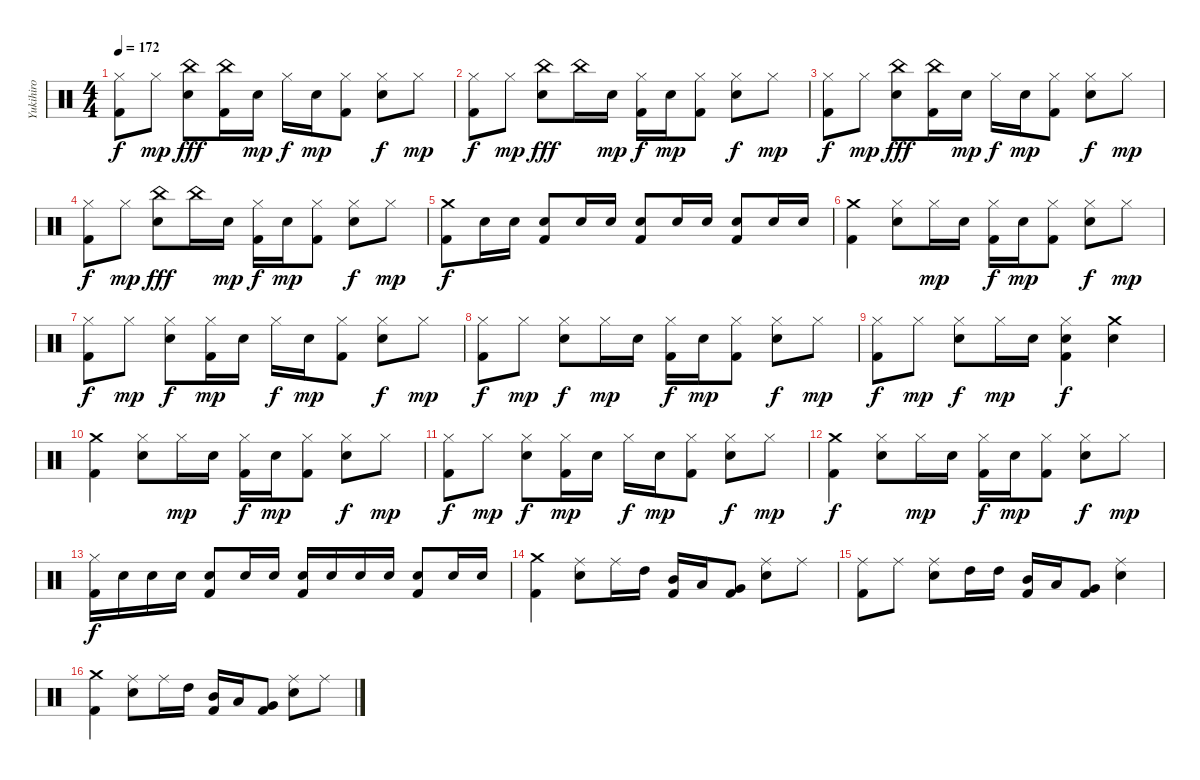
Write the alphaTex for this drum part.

\track ("Yukihiro" "Yukihiro") {instrument percussion}
\staff {score}
\articulation defaults
\ts (4 4)
\tempo 172
\clef neutral
\ks c
("Hi-Hat (closed)" "Kick (hit) 2").8{dy f} "Hi-Hat (closed)".8{dy mp} ("China (hit)" "Electric Snare (hit)").8{dy fff} ("China (hit)" "Kick (hit) 2").16 "Electric Snare (hit)".16{dy mp} "Hi-Hat (closed)".16{dy f} "Electric Snare (hit)".16{dy mp} ("Hi-Hat (closed)" "Kick (hit) 2").8 ("Hi-Hat (closed)" "Electric Snare (hit)").8{dy f} "Hi-Hat (closed)".8{dy mp} |
("Hi-Hat (closed)" "Kick (hit) 2").8{dy f} "Hi-Hat (closed)".8{dy mp} ("China (hit)" "Electric Snare (hit)").8{dy fff} "China (hit)".16 "Electric Snare (hit)".16{dy mp} ("Hi-Hat (closed)" "Kick (hit) 2").16{dy f} "Electric Snare (hit)".16{dy mp} ("Hi-Hat (closed)" "Kick (hit) 2").8 ("Hi-Hat (closed)" "Electric Snare (hit)").8{dy f} "Hi-Hat (closed)".8{dy mp} |
("Hi-Hat (closed)" "Kick (hit) 2").8{dy f} "Hi-Hat (closed)".8{dy mp} ("China (hit)" "Electric Snare (hit)").8{dy fff} ("China (hit)" "Kick (hit) 2").16 "Electric Snare (hit)".16{dy mp} "Hi-Hat (closed)".16{dy f} "Electric Snare (hit)".16{dy mp} ("Hi-Hat (closed)" "Kick (hit) 2").8 ("Hi-Hat (closed)" "Electric Snare (hit)").8{dy f} "Hi-Hat (closed)".8{dy mp} |
("Hi-Hat (closed)" "Kick (hit) 2").8{dy f} "Hi-Hat (closed)".8{dy mp} ("China (hit)" "Electric Snare (hit)").8{dy fff} "China (hit)".16 "Electric Snare (hit)".16{dy mp} ("Hi-Hat (closed)" "Kick (hit) 2").16{dy f} "Electric Snare (hit)".16{dy mp} ("Hi-Hat (closed)" "Kick (hit) 2").8 ("Hi-Hat (closed)" "Electric Snare (hit)").8{dy f} "Hi-Hat (closed)".8{dy mp} |
("Crash medium (hit)" "Kick (hit) 2").8{dy f} "Electric Snare (hit)".16 "Electric Snare (hit)".16 ("Electric Snare (hit)" "Kick (hit) 2").8 "Electric Snare (hit)".16 "Electric Snare (hit)".16 ("Electric Snare (hit)" "Kick (hit) 2").8 "Electric Snare (hit)".16 "Electric Snare (hit)".16 ("Electric Snare (hit)" "Kick (hit) 2").8 "Electric Snare (hit)".16 "Electric Snare (hit)".16 |
("Crash medium (hit)" "Kick (hit) 2").4 ("Hi-Hat (closed)" "Electric Snare (hit)").8 "Hi-Hat (closed)".16{dy mp} "Electric Snare (hit)".16 ("Hi-Hat (closed)" "Kick (hit) 2").16{dy f} "Electric Snare (hit)".16{dy mp} ("Hi-Hat (closed)" "Kick (hit) 2").8 ("Hi-Hat (closed)" "Electric Snare (hit)").8{dy f} "Hi-Hat (closed)".8{dy mp} |
("Hi-Hat (closed)" "Kick (hit) 2").8{dy f} "Hi-Hat (closed)".8{dy mp} ("Hi-Hat (closed)" "Electric Snare (hit)").8{dy f} ("Hi-Hat (closed)" "Kick (hit) 2").16{dy mp} "Electric Snare (hit)".16 "Hi-Hat (closed)".16{dy f} "Electric Snare (hit)".16{dy mp} ("Hi-Hat (closed)" "Kick (hit) 2").8 ("Hi-Hat (closed)" "Electric Snare (hit)").8{dy f} "Hi-Hat (closed)".8{dy mp} |
("Hi-Hat (closed)" "Kick (hit) 2").8{dy f} "Hi-Hat (closed)".8{dy mp} ("Hi-Hat (closed)" "Electric Snare (hit)").8{dy f} "Hi-Hat (closed)".16{dy mp} "Electric Snare (hit)".16 ("Hi-Hat (closed)" "Kick (hit) 2").16{dy f} "Electric Snare (hit)".16{dy mp} ("Hi-Hat (closed)" "Kick (hit) 2").8 ("Hi-Hat (closed)" "Electric Snare (hit)").8{dy f} "Hi-Hat (closed)".8{dy mp} |
("Hi-Hat (closed)" "Kick (hit) 2").8{dy f} "Hi-Hat (closed)".8{dy mp} ("Hi-Hat (closed)" "Electric Snare (hit)").8{dy f} "Hi-Hat (closed)".16{dy mp} "Electric Snare (hit)".16 ("Hi-Hat (closed)" "Electric Snare (hit)" "Kick (hit) 2").4{dy f} ("Crash medium (hit)" "Electric Snare (hit)").4 |
("Crash medium (hit)" "Kick (hit) 2").4 ("Hi-Hat (closed)" "Electric Snare (hit)").8 "Hi-Hat (closed)".16{dy mp} "Electric Snare (hit)".16 ("Hi-Hat (closed)" "Kick (hit) 2").16{dy f} "Electric Snare (hit)".16{dy mp} ("Hi-Hat (closed)" "Kick (hit) 2").8 ("Hi-Hat (closed)" "Electric Snare (hit)").8{dy f} "Hi-Hat (closed)".8{dy mp} |
("Hi-Hat (closed)" "Kick (hit) 2").8{dy f} "Hi-Hat (closed)".8{dy mp} ("Hi-Hat (closed)" "Electric Snare (hit)").8{dy f} ("Hi-Hat (closed)" "Kick (hit) 2").16{dy mp} "Electric Snare (hit)".16 "Hi-Hat (closed)".16{dy f} "Electric Snare (hit)".16{dy mp} ("Hi-Hat (closed)" "Kick (hit) 2").8 ("Hi-Hat (closed)" "Electric Snare (hit)").8{dy f} "Hi-Hat (closed)".8{dy mp} |
("Crash medium (hit)" "Kick (hit) 2").4{dy f} ("Hi-Hat (closed)" "Electric Snare (hit)").8 "Hi-Hat (closed)".16{dy mp} "Electric Snare (hit)".16 ("Hi-Hat (closed)" "Kick (hit) 2").16{dy f} "Electric Snare (hit)".16{dy mp} ("Hi-Hat (closed)" "Kick (hit) 2").8 ("Hi-Hat (closed)" "Electric Snare (hit)").8{dy f} "Hi-Hat (closed)".8{dy mp} |
("Hi-Hat (closed)" "Kick (hit) 2").16{dy f} "Electric Snare (hit)".16 "Electric Snare (hit)".16 "Electric Snare (hit)".16 ("Electric Snare (hit)" "Kick (hit) 2").8 "Electric Snare (hit)".16 "Electric Snare (hit)".16 ("Electric Snare (hit)" "Kick (hit) 2").16 "Electric Snare (hit)".16 "Electric Snare (hit)".16 "Electric Snare (hit)".16 ("Electric Snare (hit)" "Kick (hit) 2").8 "Electric Snare (hit)".16 "Electric Snare (hit)".16 |
("Crash medium (hit)" "Kick (hit) 2").4 ("Ride (middle)" "Electric Snare (hit)").8 "Ride (middle)".16 "High Tom (hit)".16 ("Mid Tom (hit)" "Kick (hit) 2").16 "Low Tom (hit)".16 ("Very Low Tom (hit)" "Kick (hit) 2").8 ("Ride (middle)" "Electric Snare (hit)").8 "Ride (middle)".8 |
("Ride (middle)" "Kick (hit) 2").8 "Ride (middle)".8 ("Ride (middle)" "Electric Snare (hit)").8 "High Tom (hit)".16 "High Tom (hit)".16 ("Mid Tom (hit)" "Kick (hit) 2").16 "Low Tom (hit)".16 ("Very Low Tom (hit)" "Kick (hit) 2").8 ("Ride (middle)" "Electric Snare (hit)").4 |
("Crash medium (hit)" "Kick (hit) 2").4 ("Ride (middle)" "Electric Snare (hit)").8 "Ride (middle)".16 "High Tom (hit)".16 ("Mid Tom (hit)" "Kick (hit) 2").16 "Low Tom (hit)".16 ("Very Low Tom (hit)" "Kick (hit) 2").8 ("Ride (middle)" "Electric Snare (hit)").8 "Ride (middle)".8
